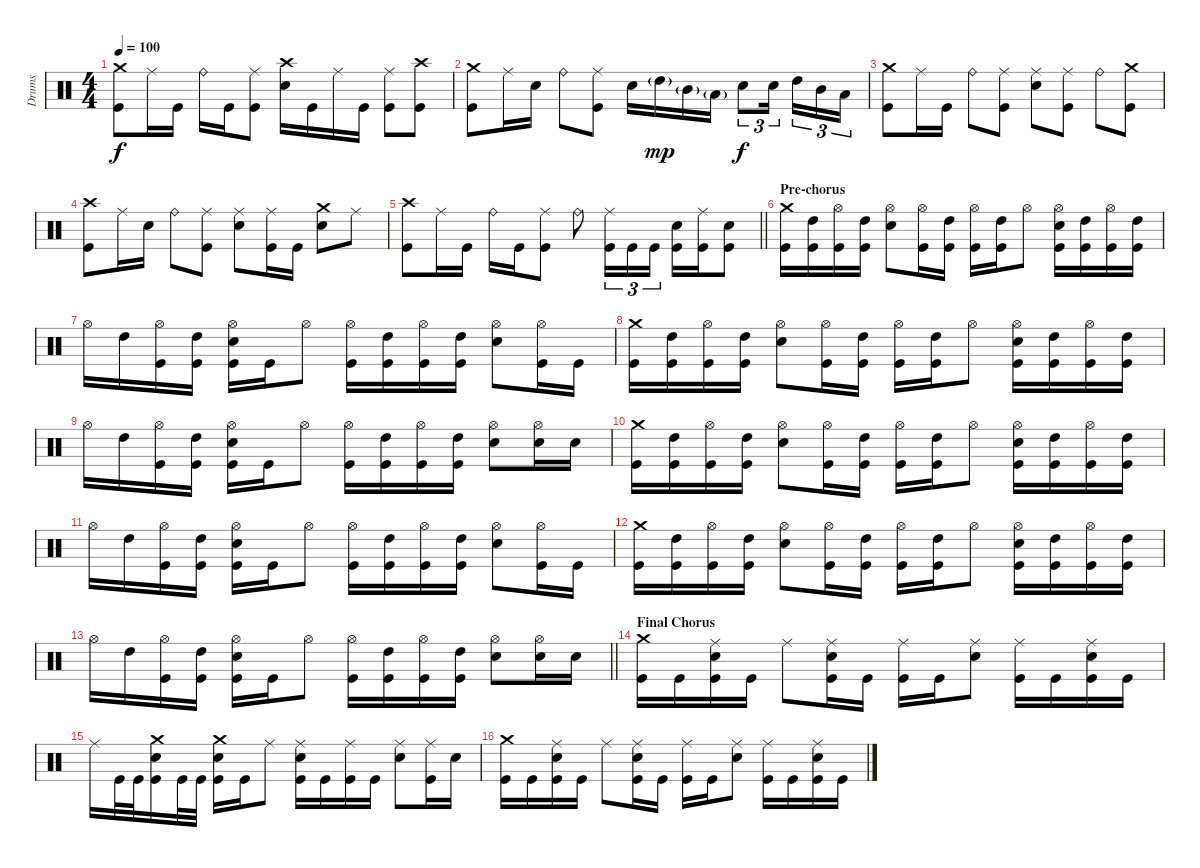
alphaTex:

\track ("Drums" "Drums") {instrument percussion}
\staff {score}
\articulation defaults
\ts (4 4)
\tempo 100
\clef neutral
\ks c
("Crash medium (hit)" "Kick (hit)").8{dy f} "Ride (middle)".16 "Kick (hit)".16 "Ride (bell)".16 "Kick (hit)".16 ("Ride (middle)" "Kick (hit)").8 ("Crash high (hit)" "Electric Snare (hit)").16 "Kick (hit)".16 "Ride (middle)".16 "Kick (hit)".16 ("Ride (middle)" "Kick (hit)").8 ("Crash high (hit)" "Kick (hit)").8 |
("Crash medium (hit)" "Kick (hit)").8 "Ride (middle)".16 "Electric Snare (hit)".16 "Ride (bell)".8 ("Ride (middle)" "Kick (hit)").8 "Electric Snare (hit)".16 "High Tom (hit)"{g}.16{dy mp} "Mid Tom (hit)"{g}.16 "Low Tom (hit)"{g}.16 "Electric Snare (hit)".8{tu (3 2) dy f} "Electric Snare (hit)".16{tu (3 2)} "High Tom (hit)".16{tu (3 2)} "Mid Tom (hit)".16{tu (3 2)} "Low Tom (hit)".16{tu (3 2)} |
("Crash medium (hit)" "Kick (hit)").8 "Ride (middle)".16 "Kick (hit)".16 "Ride (bell)".8 ("Ride (middle)" "Kick (hit)").8 ("Ride (middle)" "Electric Snare (hit)").8 ("Ride (middle)" "Kick (hit)").8 "Ride (bell)".8 ("Crash medium (hit)" "Kick (hit)").8 |
("Crash high (hit)" "Kick (hit)").8 "Ride (middle)".16 "Electric Snare (hit)".16 "Ride (bell)".8 ("Ride (middle)" "Kick (hit)").8 ("Ride (middle)" "Electric Snare (hit)").8 ("Ride (middle)" "Kick (hit)").16 "Kick (hit)".16 ("Crash medium (hit)" "Electric Snare (hit)").8 "Ride (middle)".8 |
\barLineRight lightlight
("Crash high (hit)" "Kick (hit)").8 "Ride (middle)".16 "Kick (hit)".16 "Ride (bell)".16 "Kick (hit)".16 ("Ride (middle)" "Kick (hit)").8 "Ride (bell)".8 ("Ride (middle)" "Kick (hit)").16{tu (3 2)} "Kick (hit)".16{tu (3 2)} "Kick (hit)".16{tu (3 2)} ("Electric Snare (hit)" "Kick (hit)").16 ("Ride (middle)" "Kick (hit)").16 ("Electric Snare (hit)" "Kick (hit)").8 |
\section ("" "Pre-chorus")
("Crash medium (hit)" "Kick (hit)").16 ("High Tom (hit)" "Kick (hit)").16 ("Hi-Hat (open)" "Kick (hit)").16 ("High Tom (hit)" "Kick (hit)").16 ("Hi-Hat (open)" "Electric Snare (hit)").8 ("Hi-Hat (open)" "Kick (hit)").16 ("High Tom (hit)" "Kick (hit)").16 ("Hi-Hat (open)" "Kick (hit)").16 ("High Tom (hit)" "Kick (hit)").16 "Hi-Hat (open)".8 ("Hi-Hat (open)" "Electric Snare (hit)" "Kick (hit)").16 ("High Tom (hit)" "Kick (hit)").16 ("Hi-Hat (open)" "Kick (hit)").16 ("High Tom (hit)" "Kick (hit)").16 |
"Hi-Hat (open)".16 "High Tom (hit)".16 ("Hi-Hat (open)" "Kick (hit)").16 ("High Tom (hit)" "Kick (hit)").16 ("Hi-Hat (open)" "Electric Snare (hit)" "Kick (hit)").16 "Kick (hit)".16 "Hi-Hat (open)".8 ("Hi-Hat (open)" "Kick (hit)").16 ("High Tom (hit)" "Kick (hit)").16 ("Hi-Hat (open)" "Kick (hit)").16 ("High Tom (hit)" "Kick (hit)").16 ("Hi-Hat (open)" "Electric Snare (hit)").8 ("Hi-Hat (open)" "Kick (hit)").16 "Kick (hit)".16 |
("Crash medium (hit)" "Kick (hit)").16 ("High Tom (hit)" "Kick (hit)").16 ("Hi-Hat (open)" "Kick (hit)").16 ("High Tom (hit)" "Kick (hit)").16 ("Hi-Hat (open)" "Electric Snare (hit)").8 ("Hi-Hat (open)" "Kick (hit)").16 ("High Tom (hit)" "Kick (hit)").16 ("Hi-Hat (open)" "Kick (hit)").16 ("High Tom (hit)" "Kick (hit)").16 "Hi-Hat (open)".8 ("Hi-Hat (open)" "Electric Snare (hit)" "Kick (hit)").16 ("High Tom (hit)" "Kick (hit)").16 ("Hi-Hat (open)" "Kick (hit)").16 ("High Tom (hit)" "Kick (hit)").16 |
"Hi-Hat (open)".16 "High Tom (hit)".16 ("Hi-Hat (open)" "Kick (hit)").16 ("High Tom (hit)" "Kick (hit)").16 ("Hi-Hat (open)" "Electric Snare (hit)" "Kick (hit)").16 "Kick (hit)".16 "Hi-Hat (open)".8 ("Hi-Hat (open)" "Kick (hit)").16 ("High Tom (hit)" "Kick (hit)").16 ("Hi-Hat (open)" "Kick (hit)").16 ("High Tom (hit)" "Kick (hit)").16 ("Hi-Hat (open)" "Electric Snare (hit)").8 ("Hi-Hat (open)" "Electric Snare (hit)").16 "Electric Snare (hit)".16 |
("Crash medium (hit)" "Kick (hit)").16 ("High Tom (hit)" "Kick (hit)").16 ("Hi-Hat (open)" "Kick (hit)").16 ("High Tom (hit)" "Kick (hit)").16 ("Hi-Hat (open)" "Electric Snare (hit)").8 ("Hi-Hat (open)" "Kick (hit)").16 ("High Tom (hit)" "Kick (hit)").16 ("Hi-Hat (open)" "Kick (hit)").16 ("High Tom (hit)" "Kick (hit)").16 "Hi-Hat (open)".8 ("Hi-Hat (open)" "Electric Snare (hit)" "Kick (hit)").16 ("High Tom (hit)" "Kick (hit)").16 ("Hi-Hat (open)" "Kick (hit)").16 ("High Tom (hit)" "Kick (hit)").16 |
"Hi-Hat (open)".16 "High Tom (hit)".16 ("Hi-Hat (open)" "Kick (hit)").16 ("High Tom (hit)" "Kick (hit)").16 ("Hi-Hat (open)" "Electric Snare (hit)" "Kick (hit)").16 "Kick (hit)".16 "Hi-Hat (open)".8 ("Hi-Hat (open)" "Kick (hit)").16 ("High Tom (hit)" "Kick (hit)").16 ("Hi-Hat (open)" "Kick (hit)").16 ("High Tom (hit)" "Kick (hit)").16 ("Hi-Hat (open)" "Electric Snare (hit)").8 ("Hi-Hat (open)" "Kick (hit)").16 "Kick (hit)".16 |
("Crash medium (hit)" "Kick (hit)").16 ("High Tom (hit)" "Kick (hit)").16 ("Hi-Hat (open)" "Kick (hit)").16 ("High Tom (hit)" "Kick (hit)").16 ("Hi-Hat (open)" "Electric Snare (hit)").8 ("Hi-Hat (open)" "Kick (hit)").16 ("High Tom (hit)" "Kick (hit)").16 ("Hi-Hat (open)" "Kick (hit)").16 ("High Tom (hit)" "Kick (hit)").16 "Hi-Hat (open)".8 ("Hi-Hat (open)" "Electric Snare (hit)" "Kick (hit)").16 ("High Tom (hit)" "Kick (hit)").16 ("Hi-Hat (open)" "Kick (hit)").16 ("High Tom (hit)" "Kick (hit)").16 |
\barLineRight lightlight "Hi-Hat (open)".16 "High Tom (hit)".16
("Hi-Hat (open)" "Kick (hit)").16 ("High Tom (hit)" "Kick (hit)").16 ("Hi-Hat (open)" "Electric Snare (hit)" "Kick (hit)").16 "Kick (hit)".16 "Hi-Hat (open)".8 ("Hi-Hat (open)" "Kick (hit)").16 ("High Tom (hit)" "Kick (hit)").16 ("Hi-Hat (open)" "Kick (hit)").16 ("High Tom (hit)" "Kick (hit)").16 ("Hi-Hat (open)" "Electric Snare (hit)").8 ("Hi-Hat (open)" "Electric Snare (hit)").16 "Electric Snare (hit)".16 |
\section ("" "Final Chorus")
("Crash medium (hit)" "Kick (hit)").16 "Kick (hit)".16 ("Ride (middle)" "Electric Snare (hit)" "Kick (hit)").16 "Kick (hit)".16 "Ride (middle)".8 ("Ride (middle)" "Electric Snare (hit)" "Kick (hit)").16 "Kick (hit)".16 ("Ride (middle)" "Kick (hit)").16 "Kick (hit)".16 ("Ride (middle)" "Electric Snare (hit)").8 ("Ride (middle)" "Kick (hit)").16 "Kick (hit)".16 ("Ride (middle)" "Electric Snare (hit)" "Kick (hit)").16 "Kick (hit)".16 |
"Ride (middle)".16 "Kick (hit)".32 "Kick (hit)".32 ("Crash medium (hit)" "Electric Snare (hit)" "Kick (hit)").16 "Kick (hit)".32 "Kick (hit)".32 ("Crash medium (hit)" "Electric Snare (hit)" "Kick (hit)").16 "Kick (hit)".16 "Ride (middle)".8 ("Ride (middle)" "Electric Snare (hit)" "Kick (hit)").16 "Kick (hit)".16 ("Ride (middle)" "Kick (hit)").16 "Kick (hit)".16 ("Ride (middle)" "Electric Snare (hit)").8 ("Ride (middle)" "Kick (hit)").16 "Electric Snare (hit)".16 |
("Crash medium (hit)" "Kick (hit)").16 "Kick (hit)".16 ("Ride (middle)" "Electric Snare (hit)" "Kick (hit)").16 "Kick (hit)".16 "Ride (middle)".8 ("Ride (middle)" "Electric Snare (hit)" "Kick (hit)").16 "Kick (hit)".16 ("Ride (middle)" "Kick (hit)").16 "Kick (hit)".16 ("Ride (middle)" "Electric Snare (hit)").8 ("Ride (middle)" "Kick (hit)").16 "Kick (hit)".16 ("Ride (middle)" "Electric Snare (hit)" "Kick (hit)").16 "Kick (hit)".16
